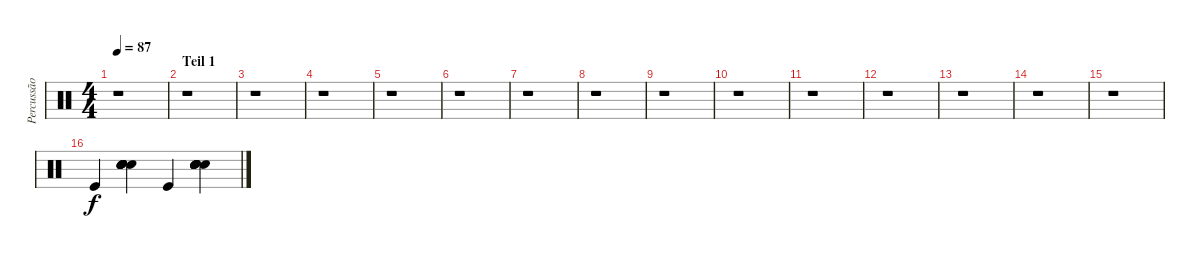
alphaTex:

\track ("Percussão" "Percussão") {instrument percussion}
\staff {score}
\articulation defaults
\ts (4 4)
\tempo 87
\clef neutral
\ks c
r.1{dy f} |
\section ("" "Teil 1")
r.1 |
r.1 |
r.1 |
r.1 |
r.1 |
r.1 |
r.1 |
r.1 |
r.1 |
r.1 |
r.1 |
r.1 |
r.1 |
r.1 |
"Kick (hit)".4 ("Snare (hit) 2" "Snare (hit) 2" "Snare (hit) 2" "Snare (hit) 2" "Snare (hit) 2" "Snare (hit) 2").4 "Kick (hit)".4 ("Snare (hit) 2" "Snare (hit) 2" "Snare (hit) 2" "Snare (hit) 2" "Snare (hit) 2" "Snare (hit) 2").4
